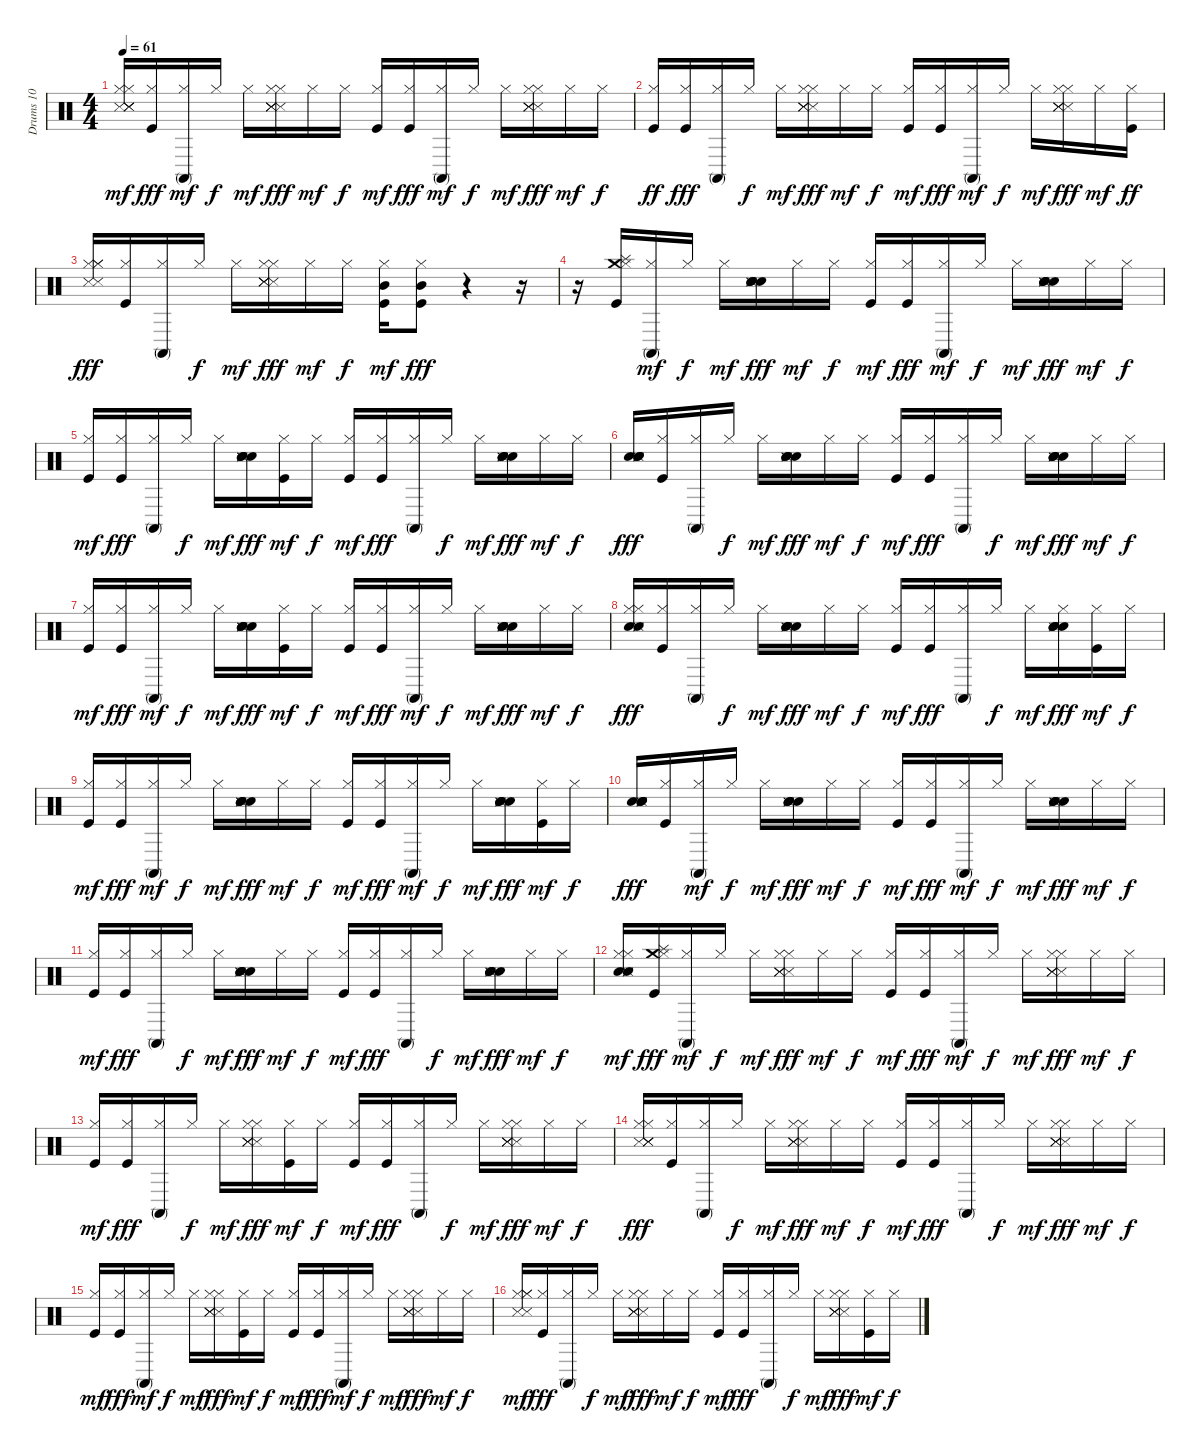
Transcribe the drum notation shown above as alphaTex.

\track ("Drums 10" "Drums 10") {instrument percussion}
\staff {score}
\articulation defaults
\ts (4 4)
\tempo 61
\clef neutral
\ks c
("Hi-Hat (closed)" "Snare (side stick) 3" "Snare (side stick) 3" "Snare (side stick) 3" "Snare (side stick) 3" "Hi-Hat (closed)").16{dy mf} ("Kick (hit)" "Hi-Hat (closed)").16{dy fff} ("Conga high (mute)" "Hi-Hat (closed)").16{dy mf} "Hi-Hat (closed)".16{dy f} "Hi-Hat (closed)".16{dy mf} ("Snare (side stick) 3" "Hi-Hat (closed)" "Hi-Hat (closed)" "Snare (side stick) 3" "Snare (side stick) 3" "Snare (side stick) 3").16{dy fff} "Hi-Hat (closed)".16{dy mf} "Hi-Hat (closed)".16{dy f} ("Kick (hit)" "Hi-Hat (closed)").16{dy mf} ("Hi-Hat (closed)" "Kick (hit)").16{dy fff} ("Conga high (mute)" "Hi-Hat (closed)").16{dy mf} "Hi-Hat (closed)".16{dy f} "Hi-Hat (closed)".16{dy mf} ("Snare (side stick) 3" "Snare (side stick) 3" "Snare (side stick) 3" "Snare (side stick) 3" "Hi-Hat (closed)" "Hi-Hat (closed)").16{dy fff} "Hi-Hat (closed)".16{dy mf} "Hi-Hat (closed)".16{dy f} |
("Hi-Hat (closed)" "Kick (hit)").16{dy ff} ("Kick (hit)" "Hi-Hat (closed)").16{dy fff} ("Hi-Hat (closed)" "Conga high (mute)").16 "Hi-Hat (closed)".16{dy f} "Hi-Hat (closed)".16{dy mf} ("Snare (side stick) 3" "Hi-Hat (closed)" "Snare (side stick) 3" "Snare (side stick) 3" "Snare (side stick) 3" "Hi-Hat (closed)").16{dy fff} "Hi-Hat (closed)".16{dy mf} "Hi-Hat (closed)".16{dy f} ("Kick (hit)" "Hi-Hat (closed)").16{dy mf} ("Hi-Hat (closed)" "Kick (hit)").16{dy fff} ("Conga high (mute)" "Hi-Hat (closed)").16{dy mf} "Hi-Hat (closed)".16{dy f} "Hi-Hat (closed)".16{dy mf} ("Snare (side stick) 3" "Snare (side stick) 3" "Snare (side stick) 3" "Hi-Hat (closed)" "Hi-Hat (closed)" "Snare (side stick) 3").16{dy fff} "Hi-Hat (closed)".16{dy mf} ("Hi-Hat (closed)" "Kick (hit)").16{dy ff} |
("Hi-Hat (closed)" "Hi-Hat (closed)" "Hi-Hat (closed)" "Snare (side stick) 3" "Snare (side stick) 3").16{dy fff} ("Hi-Hat (closed)" "Kick (hit)").16 ("Hi-Hat (closed)" "Conga high (mute)").16 "Hi-Hat (closed)".16{dy f} "Hi-Hat (closed)".16{dy mf} ("Hi-Hat (closed)" "Snare (side stick) 3" "Snare (side stick) 3" "Snare (side stick) 3" "Snare (side stick) 3" "Hi-Hat (closed)").16{dy fff} "Hi-Hat (closed)".16{dy mf} "Hi-Hat (closed)".16{dy f} ("Kick (hit)" "Mid Tom (hit)" "Hi-Hat (closed)").16{dy mf} ("Mid Tom (hit)" "Hi-Hat (closed)" "Kick (hit)").8{dy fff} r.4 r.16 |
r.16 ("Splash (hit)" "Crash medium (hit)" "Hi-Hat (closed)" "Kick (hit)").16 ("Conga high (mute)" "Hi-Hat (closed)").16{dy mf} "Hi-Hat (closed)".16{dy f} "Hi-Hat (closed)".16{dy mf volume 12} ("Snare (hit)" "Snare (hit)" "Snare (hit)" "Snare (hit)" "Snare (side stick) 3" "Snare (side stick) 3").16{dy fff} "Hi-Hat (closed)".16{dy mf volume 12} "Hi-Hat (closed)".16{dy f volume 12} ("Kick (hit)" "Hi-Hat (closed)").16{dy mf volume 12} ("Kick (hit)" "Hi-Hat (closed)").16{dy fff volume 12} ("Conga high (mute)" "Hi-Hat (closed)").16{dy mf volume 11} "Hi-Hat (closed)".16{dy f volume 11} "Hi-Hat (closed)".16{dy mf} ("Snare (hit)" "Snare (hit)" "Snare (hit)" "Snare (hit)" "Snare (side stick) 3" "Snare (side stick) 3").16{dy fff} "Hi-Hat (closed)".16{dy mf} "Hi-Hat (closed)".16{dy f} |
("Kick (hit)" "Hi-Hat (closed)").16{dy mf volume 10} ("Hi-Hat (closed)" "Kick (hit)").16{dy fff} ("Hi-Hat (closed)" "Conga high (mute)").16 "Hi-Hat (closed)".16{dy f} "Hi-Hat (closed)".16{dy mf} ("Snare (hit)" "Snare (hit)" "Snare (hit)" "Snare (hit)" "Snare (side stick) 3" "Snare (side stick) 3").16{dy fff} ("Kick (hit)" "Hi-Hat (closed)").16{dy mf} "Hi-Hat (closed)".16{dy f volume 10} ("Kick (hit)" "Hi-Hat (closed)").16{dy mf} ("Hi-Hat (closed)" "Kick (hit)").16{dy fff volume 11} ("Hi-Hat (closed)" "Conga high (mute)").16 "Hi-Hat (closed)".16{dy f volume 11} "Hi-Hat (closed)".16{dy mf} ("Snare (hit)" "Snare (hit)" "Snare (hit)" "Snare (hit)" "Snare (side stick) 3" "Snare (side stick) 3").16{dy fff volume 11} "Hi-Hat (closed)".16{dy mf} "Hi-Hat (closed)".16{dy f} |
("Snare (hit)" "Snare (hit)" "Snare (hit)" "Snare (hit)" "Snare (side stick) 3" "Snare (side stick) 3").16{dy fff} ("Hi-Hat (closed)" "Kick (hit)").16 ("Hi-Hat (closed)" "Conga high (mute)").16 "Hi-Hat (closed)".16{dy f} "Hi-Hat (closed)".16{dy mf} ("Snare (hit)" "Snare (hit)" "Snare (hit)" "Snare (hit)" "Snare (side stick) 3" "Snare (side stick) 3").16{dy fff} "Hi-Hat (closed)".16{dy mf} "Hi-Hat (closed)".16{dy f} ("Kick (hit)" "Hi-Hat (closed)").16{dy mf} ("Hi-Hat (closed)" "Kick (hit)").16{dy fff} ("Hi-Hat (closed)" "Conga high (mute)").16 "Hi-Hat (closed)".16{dy f} "Hi-Hat (closed)".16{dy mf} ("Snare (hit)" "Snare (hit)" "Snare (hit)" "Snare (hit)" "Snare (side stick) 3" "Snare (side stick) 3").16{dy fff} "Hi-Hat (closed)".16{dy mf} "Hi-Hat (closed)".16{dy f} |
("Kick (hit)" "Hi-Hat (closed)").16{dy mf} ("Kick (hit)" "Hi-Hat (closed)").16{dy fff} ("Conga high (mute)" "Hi-Hat (closed)").16{dy mf} "Hi-Hat (closed)".16{dy f} "Hi-Hat (closed)".16{dy mf} ("Snare (hit)" "Snare (hit)" "Snare (hit)" "Snare (hit)" "Snare (side stick) 3" "Snare (side stick) 3").16{dy fff} ("Kick (hit)" "Hi-Hat (closed)").16{dy mf} "Hi-Hat (closed)".16{dy f} ("Kick (hit)" "Hi-Hat (closed)").16{dy mf} ("Kick (hit)" "Hi-Hat (closed)").16{dy fff} ("Conga high (mute)" "Hi-Hat (closed)").16{dy mf} "Hi-Hat (closed)".16{dy f} "Hi-Hat (closed)".16{dy mf} ("Snare (hit)" "Snare (hit)" "Snare (hit)" "Snare (hit)" "Snare (side stick) 3" "Snare (side stick) 3").16{dy fff} "Hi-Hat (closed)".16{dy mf} "Hi-Hat (closed)".16{dy f} |
("Snare (hit)" "Snare (hit)" "Snare (side stick) 3" "Snare (side stick) 3" "Hi-Hat (closed)" "Hi-Hat (closed)").16{dy fff} ("Hi-Hat (closed)" "Kick (hit)").16 ("Hi-Hat (closed)" "Conga high (mute)").16 "Hi-Hat (closed)".16{dy f} "Hi-Hat (closed)".16{dy mf} ("Snare (hit)" "Snare (hit)" "Snare (hit)" "Snare (hit)" "Snare (side stick) 3" "Snare (side stick) 3").16{dy fff} "Hi-Hat (closed)".16{dy mf} "Hi-Hat (closed)".16{dy f} ("Kick (hit)" "Hi-Hat (closed)").16{dy mf} ("Hi-Hat (closed)" "Kick (hit)").16{dy fff} ("Hi-Hat (closed)" "Conga high (mute)").16 "Hi-Hat (closed)".16{dy f} "Hi-Hat (closed)".16{dy mf} ("Snare (hit)" "Snare (hit)" "Snare (hit)" "Snare (hit)" "Snare (side stick) 3" "Hi-Hat (closed)").16{dy fff} ("Kick (hit)" "Hi-Hat (closed)").16{dy mf} "Hi-Hat (closed)".16{dy f} |
("Kick (hit)" "Hi-Hat (closed)").16{dy mf} ("Kick (hit)" "Hi-Hat (closed)").16{dy fff} ("Conga high (mute)" "Hi-Hat (closed)").16{dy mf} "Hi-Hat (closed)".16{dy f} "Hi-Hat (closed)".16{dy mf} ("Snare (hit)" "Snare (hit)" "Snare (hit)" "Snare (hit)" "Snare (side stick) 3" "Snare (side stick) 3").16{dy fff} "Hi-Hat (closed)".16{dy mf} "Hi-Hat (closed)".16{dy f} ("Kick (hit)" "Hi-Hat (closed)").16{dy mf} ("Kick (hit)" "Hi-Hat (closed)").16{dy fff} ("Conga high (mute)" "Hi-Hat (closed)").16{dy mf} "Hi-Hat (closed)".16{dy f} "Hi-Hat (closed)".16{dy mf} ("Snare (hit)" "Snare (hit)" "Snare (hit)" "Snare (hit)" "Snare (side stick) 3" "Snare (side stick) 3").16{dy fff} ("Kick (hit)" "Hi-Hat (closed)").16{dy mf} "Hi-Hat (closed)".16{dy f} |
("Snare (hit)" "Snare (hit)" "Snare (hit)" "Snare (hit)" "Snare (side stick) 3" "Snare (side stick) 3").16{dy fff} ("Kick (hit)" "Hi-Hat (closed)").16 ("Conga high (mute)" "Hi-Hat (closed)").16{dy mf} "Hi-Hat (closed)".16{dy f} "Hi-Hat (closed)".16{dy mf} ("Snare (hit)" "Snare (hit)" "Snare (hit)" "Snare (hit)" "Snare (side stick) 3" "Snare (side stick) 3").16{dy fff} "Hi-Hat (closed)".16{dy mf} "Hi-Hat (closed)".16{dy f} ("Kick (hit)" "Hi-Hat (closed)").16{dy mf} ("Kick (hit)" "Hi-Hat (closed)").16{dy fff} ("Conga high (mute)" "Hi-Hat (closed)").16{dy mf} "Hi-Hat (closed)".16{dy f} "Hi-Hat (closed)".16{dy mf} ("Snare (hit)" "Snare (hit)" "Snare (hit)" "Snare (hit)" "Snare (side stick) 3" "Snare (side stick) 3").16{dy fff} "Hi-Hat (closed)".16{dy mf} "Hi-Hat (closed)".16{dy f} |
("Kick (hit)" "Hi-Hat (closed)").16{dy mf} ("Hi-Hat (closed)" "Kick (hit)").16{dy fff} ("Hi-Hat (closed)" "Conga high (mute)").16 "Hi-Hat (closed)".16{dy f} "Hi-Hat (closed)".16{dy mf} ("Snare (hit)" "Snare (hit)" "Snare (hit)" "Snare (hit)" "Snare (side stick) 3" "Snare (side stick) 3").16{dy fff} "Hi-Hat (closed)".16{dy mf} "Hi-Hat (closed)".16{dy f} ("Kick (hit)" "Hi-Hat (closed)").16{dy mf} ("Hi-Hat (closed)" "Kick (hit)").16{dy fff} ("Hi-Hat (closed)" "Conga high (mute)").16 "Hi-Hat (closed)".16{dy f} "Hi-Hat (closed)".16{dy mf} ("Snare (hit)" "Snare (hit)" "Snare (hit)" "Snare (hit)" "Snare (side stick) 3" "Snare (side stick) 3").16{dy fff volume 11} "Hi-Hat (closed)".16{dy mf volume 11} "Hi-Hat (closed)".16{dy f volume 12} |
("Snare (hit)" "Snare (hit)" "Snare (side stick) 3" "Snare (side stick) 3" "Hi-Hat (closed)" "Hi-Hat (closed)").16{dy mf volume 12} ("Splash (hit)" "Crash medium (hit)" "Hi-Hat (closed)" "Kick (hit)").16{dy fff volume 12} ("Conga high (mute)" "Hi-Hat (closed)").16{dy mf volume 13} "Hi-Hat (closed)".16{dy f} "Hi-Hat (closed)".16{dy mf volume 13} ("Snare (side stick) 3" "Snare (side stick) 3" "Snare (side stick) 3" "Snare (side stick) 3" "Hi-Hat (closed)" "Hi-Hat (closed)").16{dy fff volume 13} "Hi-Hat (closed)".16{dy mf volume 14} "Hi-Hat (closed)".16{dy f volume 14} ("Kick (hit)" "Hi-Hat (closed)").16{dy mf} ("Kick (hit)" "Hi-Hat (closed)").16{dy fff} ("Conga high (mute)" "Hi-Hat (closed)").16{dy mf volume 14} "Hi-Hat (closed)".16{dy f volume 14} "Hi-Hat (closed)".16{dy mf volume 14} ("Snare (side stick) 3" "Snare (side stick) 3" "Snare (side stick) 3" "Snare (side stick) 3" "Hi-Hat (closed)" "Hi-Hat (closed)").16{dy fff} "Hi-Hat (closed)".16{dy mf} "Hi-Hat (closed)".16{dy f volume 14} |
("Kick (hit)" "Hi-Hat (closed)").16{dy mf} ("Hi-Hat (closed)" "Kick (hit)").16{dy fff} ("Hi-Hat (closed)" "Conga high (mute)").16{volume 14} "Hi-Hat (closed)".16{dy f} "Hi-Hat (closed)".16{dy mf} ("Snare (side stick) 3" "Snare (side stick) 3" "Snare (side stick) 3" "Snare (side stick) 3" "Hi-Hat (closed)" "Hi-Hat (closed)").16{dy fff} ("Kick (hit)" "Hi-Hat (closed)").16{dy mf} "Hi-Hat (closed)".16{dy f} ("Kick (hit)" "Hi-Hat (closed)").16{dy mf} ("Hi-Hat (closed)" "Kick (hit)").16{dy fff} ("Hi-Hat (closed)" "Conga high (mute)").16 "Hi-Hat (closed)".16{dy f} "Hi-Hat (closed)".16{dy mf} ("Snare (side stick) 3" "Snare (side stick) 3" "Snare (side stick) 3" "Snare (side stick) 3" "Hi-Hat (closed)" "Hi-Hat (closed)").16{dy fff} "Hi-Hat (closed)".16{dy mf} "Hi-Hat (closed)".16{dy f} |
("Snare (side stick) 3" "Snare (side stick) 3" "Snare (side stick) 3" "Snare (side stick) 3" "Hi-Hat (closed)" "Hi-Hat (closed)").16{dy fff} ("Hi-Hat (closed)" "Kick (hit)").16 ("Hi-Hat (closed)" "Conga high (mute)").16 "Hi-Hat (closed)".16{dy f} "Hi-Hat (closed)".16{dy mf} ("Snare (side stick) 3" "Snare (side stick) 3" "Snare (side stick) 3" "Snare (side stick) 3" "Hi-Hat (closed)" "Hi-Hat (closed)").16{dy fff} "Hi-Hat (closed)".16{dy mf} "Hi-Hat (closed)".16{dy f} ("Kick (hit)" "Hi-Hat (closed)").16{dy mf} ("Hi-Hat (closed)" "Kick (hit)").16{dy fff} ("Hi-Hat (closed)" "Conga high (mute)").16 "Hi-Hat (closed)".16{dy f} "Hi-Hat (closed)".16{dy mf} ("Snare (side stick) 3" "Snare (side stick) 3" "Snare (side stick) 3" "Snare (side stick) 3" "Hi-Hat (closed)" "Hi-Hat (closed)").16{dy fff} "Hi-Hat (closed)".16{dy mf} "Hi-Hat (closed)".16{dy f} |
("Kick (hit)" "Hi-Hat (closed)").16{dy mf} ("Kick (hit)" "Hi-Hat (closed)").16{dy fff} ("Conga high (mute)" "Hi-Hat (closed)").16{dy mf} "Hi-Hat (closed)".16{dy f} "Hi-Hat (closed)".16{dy mf} ("Snare (side stick) 3" "Snare (side stick) 3" "Snare (side stick) 3" "Snare (side stick) 3" "Hi-Hat (closed)" "Hi-Hat (closed)").16{dy fff} ("Kick (hit)" "Hi-Hat (closed)").16{dy mf} "Hi-Hat (closed)".16{dy f} ("Kick (hit)" "Hi-Hat (closed)").16{dy mf} ("Kick (hit)" "Hi-Hat (closed)").16{dy fff} ("Conga high (mute)" "Hi-Hat (closed)").16{dy mf} "Hi-Hat (closed)".16{dy f} "Hi-Hat (closed)".16{dy mf} ("Snare (side stick) 3" "Snare (side stick) 3" "Snare (side stick) 3" "Snare (side stick) 3" "Hi-Hat (closed)" "Hi-Hat (closed)").16{dy fff} "Hi-Hat (closed)".16{dy mf} "Hi-Hat (closed)".16{dy f} |
("Snare (side stick) 3" "Snare (side stick) 3" "Hi-Hat (closed)" "Hi-Hat (closed)" "Hi-Hat (closed)").16{dy mf} ("Hi-Hat (closed)" "Kick (hit)").16{dy fff} ("Hi-Hat (closed)" "Conga high (mute)").16 "Hi-Hat (closed)".16{dy f} "Hi-Hat (closed)".16{dy mf} ("Snare (side stick) 3" "Snare (side stick) 3" "Snare (side stick) 3" "Snare (side stick) 3" "Hi-Hat (closed)" "Hi-Hat (closed)").16{dy fff} "Hi-Hat (closed)".16{dy mf} "Hi-Hat (closed)".16{dy f} ("Kick (hit)" "Hi-Hat (closed)").16{dy mf} ("Hi-Hat (closed)" "Kick (hit)").16{dy fff} ("Hi-Hat (closed)" "Conga high (mute)").16 "Hi-Hat (closed)".16{dy f} "Hi-Hat (closed)".16{dy mf} ("Snare (side stick) 3" "Snare (side stick) 3" "Snare (side stick) 3" "Snare (side stick) 3" "Hi-Hat (closed)" "Hi-Hat (closed)").16{dy fff} ("Kick (hit)" "Hi-Hat (closed)").16{dy mf} "Hi-Hat (closed)".16{dy f}
